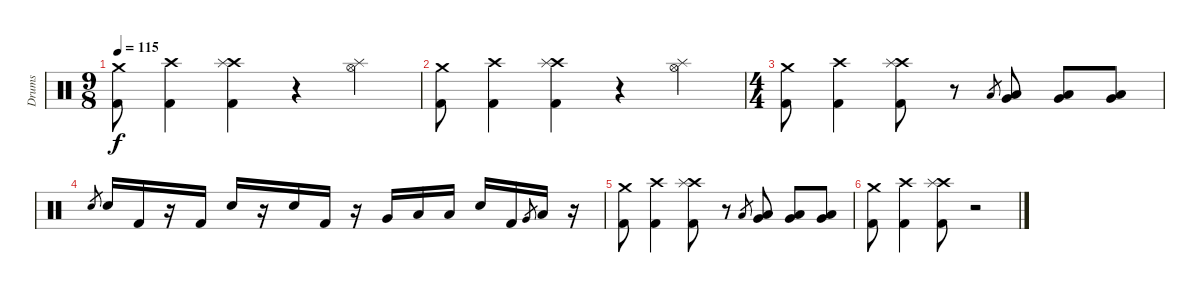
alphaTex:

\track ("Drums" "Drums") {instrument percussion}
\staff {score}
\articulation defaults
\ts (9 8)
\tempo 115
\clef neutral
\ks c
("Crash medium (hit)" "Kick (hit) 2").8{dy f} ("Crash high (hit)" "Kick (hit) 2").4 ("Crash high (hit)" "Splash (hit)" "Kick (hit) 2").4 r.4 ("Hi-Hat (open)" "Splash (hit)").4 |
("Crash medium (hit)" "Kick (hit) 2").8 ("Crash high (hit)" "Kick (hit) 2").4 ("Crash high (hit)" "Splash (hit)" "Kick (hit) 2").4 r.4 ("Hi-Hat (open)" "Splash (hit)").4 |
\ts (4 4)
("Crash medium (hit)" "Kick (hit) 2").8 ("Crash high (hit)" "Kick (hit) 2").4 ("Crash high (hit)" "Splash (hit)" "Kick (hit) 2").8 r.8 "Low Floor Tom (hit)".8{gr} ("Very Low Tom (hit)" "Low Floor Tom (hit)").8 ("Very Low Tom (hit)" "Low Floor Tom (hit)").8 ("Very Low Tom (hit)" "Low Floor Tom (hit)").8 |
"Electric Snare (hit)".8{gr} "Electric Snare (hit)".16 "Kick (hit) 2".16 r.16 "Kick (hit) 2".16 "Electric Snare (hit)".16 r.16 "Electric Snare (hit)".16 "Kick (hit) 2".16 r.16 "Very Low Tom (hit)".16 "Low Floor Tom (hit)".16 "Low Floor Tom (hit)".16 "Electric Snare (hit)".16 "Kick (hit) 2".16 "Very Low Tom (hit)".8{gr} "Low Floor Tom (hit)".16 r.16 |
("Crash medium (hit)" "Kick (hit) 2").8 ("Crash high (hit)" "Kick (hit) 2").4 ("Crash high (hit)" "Splash (hit)" "Kick (hit) 2").8 r.8 "Low Floor Tom (hit)".8{gr} ("Very Low Tom (hit)" "Low Floor Tom (hit)").8 ("Very Low Tom (hit)" "Low Floor Tom (hit)").8 ("Very Low Tom (hit)" "Low Floor Tom (hit)").8 |
("Crash medium (hit)" "Kick (hit) 2").8 ("Crash high (hit)" "Kick (hit) 2").4 ("Crash high (hit)" "Splash (hit)" "Kick (hit) 2").8 r.2
